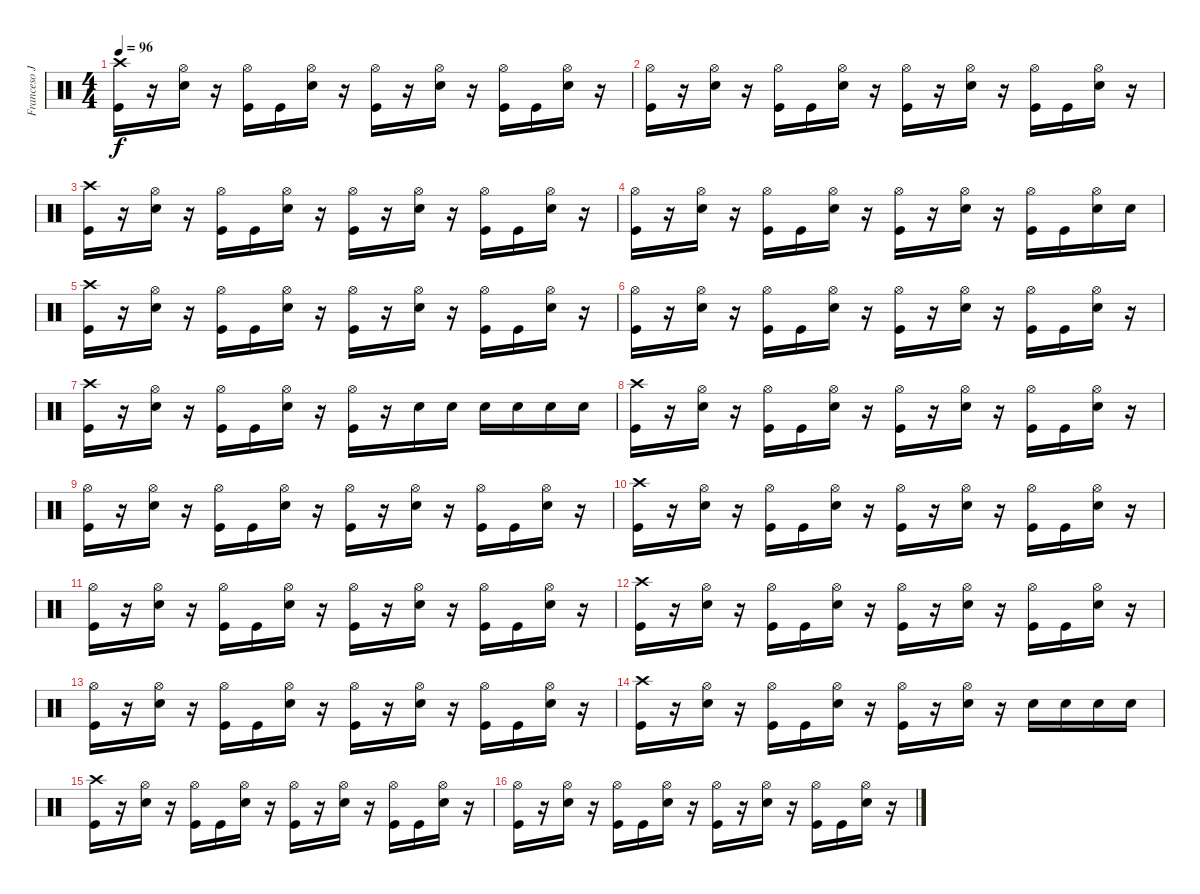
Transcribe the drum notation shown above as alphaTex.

\track ("Franceso Jovino" "Franceso J") {instrument percussion}
\staff {score}
\articulation defaults
\ts (4 4)
\tempo 96
\clef neutral
\ks c
("Kick (hit)" "Crash high (hit)").16{dy f} r.16 ("Snare (hit) 2" "Hi-Hat (open)").16 r.16 ("Hi-Hat (open)" "Kick (hit)").16 "Kick (hit)".16 ("Snare (hit) 2" "Hi-Hat (open)").16 r.16 ("Kick (hit)" "Hi-Hat (open)").16 r.16 ("Snare (hit) 2" "Hi-Hat (open)").16 r.16 ("Hi-Hat (open)" "Kick (hit)").16 "Kick (hit)".16 ("Snare (hit) 2" "Hi-Hat (open)").16 r.16 |
("Kick (hit)" "Hi-Hat (open)").16 r.16 ("Snare (hit) 2" "Hi-Hat (open)").16 r.16 ("Hi-Hat (open)" "Kick (hit)").16 "Kick (hit)".16 ("Snare (hit) 2" "Hi-Hat (open)").16 r.16 ("Kick (hit)" "Hi-Hat (open)").16 r.16 ("Snare (hit) 2" "Hi-Hat (open)").16 r.16 ("Hi-Hat (open)" "Kick (hit)").16 "Kick (hit)".16 ("Snare (hit) 2" "Hi-Hat (open)").16 r.16 |
("Kick (hit)" "Crash high (hit)").16 r.16 ("Snare (hit) 2" "Hi-Hat (open)").16 r.16 ("Hi-Hat (open)" "Kick (hit)").16 "Kick (hit)".16 ("Snare (hit) 2" "Hi-Hat (open)").16 r.16 ("Kick (hit)" "Hi-Hat (open)").16 r.16 ("Snare (hit) 2" "Hi-Hat (open)").16 r.16 ("Hi-Hat (open)" "Kick (hit)").16 "Kick (hit)".16 ("Snare (hit) 2" "Hi-Hat (open)").16 r.16 |
("Kick (hit)" "Hi-Hat (open)").16 r.16 ("Snare (hit) 2" "Hi-Hat (open)").16 r.16 ("Hi-Hat (open)" "Kick (hit)").16 "Kick (hit)".16 ("Snare (hit) 2" "Hi-Hat (open)").16 r.16 ("Kick (hit)" "Hi-Hat (open)").16 r.16 ("Snare (hit) 2" "Hi-Hat (open)").16 r.16 ("Hi-Hat (open)" "Kick (hit)").16 "Kick (hit)".16 ("Snare (hit) 2" "Hi-Hat (open)").16 "Snare (hit) 2".16 |
("Kick (hit)" "Crash high (hit)").16 r.16 ("Snare (hit) 2" "Hi-Hat (open)").16 r.16 ("Hi-Hat (open)" "Kick (hit)").16 "Kick (hit)".16 ("Snare (hit) 2" "Hi-Hat (open)").16 r.16 ("Kick (hit)" "Hi-Hat (open)").16 r.16 ("Snare (hit) 2" "Hi-Hat (open)").16 r.16 ("Hi-Hat (open)" "Kick (hit)").16 "Kick (hit)".16 ("Snare (hit) 2" "Hi-Hat (open)").16 r.16 |
("Kick (hit)" "Hi-Hat (open)").16 r.16 ("Snare (hit) 2" "Hi-Hat (open)").16 r.16 ("Hi-Hat (open)" "Kick (hit)").16 "Kick (hit)".16 ("Snare (hit) 2" "Hi-Hat (open)").16 r.16 ("Kick (hit)" "Hi-Hat (open)").16 r.16 ("Snare (hit) 2" "Hi-Hat (open)").16 r.16 ("Hi-Hat (open)" "Kick (hit)").16 "Kick (hit)".16 ("Snare (hit) 2" "Hi-Hat (open)").16 r.16 |
("Kick (hit)" "Crash high (hit)").16 r.16 ("Snare (hit) 2" "Hi-Hat (open)").16 r.16 ("Hi-Hat (open)" "Kick (hit)").16 "Kick (hit)".16 ("Snare (hit) 2" "Hi-Hat (open)").16 r.16 ("Kick (hit)" "Hi-Hat (open)").16 r.16 "Snare (hit) 2".16 "Snare (hit) 2".16 "Snare (hit) 2".16 "Snare (hit) 2".16 "Snare (hit) 2".16 "Snare (hit) 2".16 |
("Kick (hit)" "Crash high (hit)").16 r.16 ("Snare (hit) 2" "Hi-Hat (open)").16 r.16 ("Hi-Hat (open)" "Kick (hit)").16 "Kick (hit)".16 ("Snare (hit) 2" "Hi-Hat (open)").16 r.16 ("Kick (hit)" "Hi-Hat (open)").16 r.16 ("Snare (hit) 2" "Hi-Hat (open)").16 r.16 ("Hi-Hat (open)" "Kick (hit)").16 "Kick (hit)".16 ("Snare (hit) 2" "Hi-Hat (open)").16 r.16 |
("Kick (hit)" "Hi-Hat (open)").16 r.16 ("Snare (hit) 2" "Hi-Hat (open)").16 r.16 ("Hi-Hat (open)" "Kick (hit)").16 "Kick (hit)".16 ("Snare (hit) 2" "Hi-Hat (open)").16 r.16 ("Kick (hit)" "Hi-Hat (open)").16 r.16 ("Snare (hit) 2" "Hi-Hat (open)").16 r.16 ("Hi-Hat (open)" "Kick (hit)").16 "Kick (hit)".16 ("Snare (hit) 2" "Hi-Hat (open)").16 r.16 |
("Kick (hit)" "Crash high (hit)").16 r.16 ("Snare (hit) 2" "Hi-Hat (open)").16 r.16 ("Hi-Hat (open)" "Kick (hit)").16 "Kick (hit)".16 ("Snare (hit) 2" "Hi-Hat (open)").16 r.16 ("Kick (hit)" "Hi-Hat (open)").16 r.16 ("Snare (hit) 2" "Hi-Hat (open)").16 r.16 ("Hi-Hat (open)" "Kick (hit)").16 "Kick (hit)".16 ("Snare (hit) 2" "Hi-Hat (open)").16 r.16 |
("Kick (hit)" "Hi-Hat (open)").16 r.16 ("Snare (hit) 2" "Hi-Hat (open)").16 r.16 ("Hi-Hat (open)" "Kick (hit)").16 "Kick (hit)".16 ("Snare (hit) 2" "Hi-Hat (open)").16 r.16 ("Kick (hit)" "Hi-Hat (open)").16 r.16 ("Snare (hit) 2" "Hi-Hat (open)").16 r.16 ("Hi-Hat (open)" "Kick (hit)").16 "Kick (hit)".16 ("Snare (hit) 2" "Hi-Hat (open)").16 r.16 |
("Kick (hit)" "Crash high (hit)").16 r.16 ("Snare (hit) 2" "Hi-Hat (open)").16 r.16 ("Hi-Hat (open)" "Kick (hit)").16 "Kick (hit)".16 ("Snare (hit) 2" "Hi-Hat (open)").16 r.16 ("Kick (hit)" "Hi-Hat (open)").16 r.16 ("Snare (hit) 2" "Hi-Hat (open)").16 r.16 ("Hi-Hat (open)" "Kick (hit)").16 "Kick (hit)".16 ("Snare (hit) 2" "Hi-Hat (open)").16 r.16 |
("Kick (hit)" "Hi-Hat (open)").16 r.16 ("Snare (hit) 2" "Hi-Hat (open)").16 r.16 ("Hi-Hat (open)" "Kick (hit)").16 "Kick (hit)".16 ("Snare (hit) 2" "Hi-Hat (open)").16 r.16 ("Kick (hit)" "Hi-Hat (open)").16 r.16 ("Snare (hit) 2" "Hi-Hat (open)").16 r.16 ("Hi-Hat (open)" "Kick (hit)").16 "Kick (hit)".16 ("Snare (hit) 2" "Hi-Hat (open)").16 r.16 |
("Kick (hit)" "Crash high (hit)").16 r.16 ("Snare (hit) 2" "Hi-Hat (open)").16 r.16 ("Hi-Hat (open)" "Kick (hit)").16 "Kick (hit)".16 ("Snare (hit) 2" "Hi-Hat (open)").16 r.16 ("Kick (hit)" "Hi-Hat (open)").16 r.16 ("Snare (hit) 2" "Hi-Hat (open)").16 r.16 "Snare (hit) 2".16 "Snare (hit) 2".16 "Snare (hit) 2".16 "Snare (hit) 2".16 |
("Kick (hit)" "Crash high (hit)").16 r.16 ("Snare (hit) 2" "Hi-Hat (open)").16 r.16 ("Hi-Hat (open)" "Kick (hit)").16 "Kick (hit)".16 ("Snare (hit) 2" "Hi-Hat (open)").16 r.16 ("Kick (hit)" "Hi-Hat (open)").16 r.16 ("Snare (hit) 2" "Hi-Hat (open)").16 r.16 ("Hi-Hat (open)" "Kick (hit)").16 "Kick (hit)".16 ("Snare (hit) 2" "Hi-Hat (open)").16 r.16 |
("Kick (hit)" "Hi-Hat (open)").16 r.16 ("Snare (hit) 2" "Hi-Hat (open)").16 r.16 ("Hi-Hat (open)" "Kick (hit)").16 "Kick (hit)".16 ("Snare (hit) 2" "Hi-Hat (open)").16 r.16 ("Kick (hit)" "Hi-Hat (open)").16 r.16 ("Snare (hit) 2" "Hi-Hat (open)").16 r.16 ("Hi-Hat (open)" "Kick (hit)").16 "Kick (hit)".16 ("Snare (hit) 2" "Hi-Hat (open)").16 r.16
